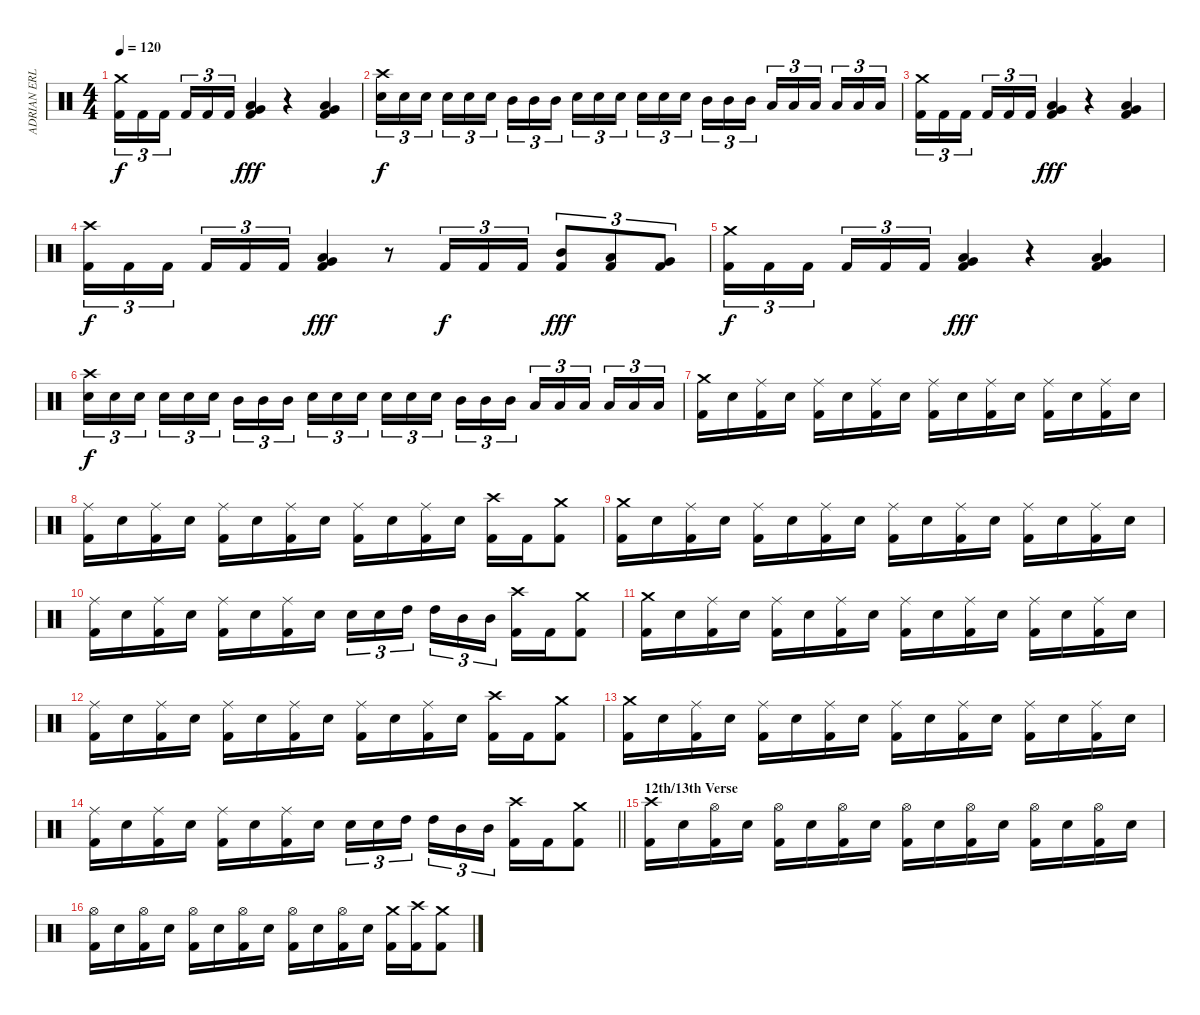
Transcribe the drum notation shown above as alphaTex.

\track ("ADRIAN ERLANDSSON" "ADRIAN ERL") {instrument percussion}
\staff {score}
\articulation defaults
\ts (4 4)
\tempo 120
\clef neutral
\ks c
("Kick (hit) 2" "Crash medium (hit)").16{tu (3 2) dy f} "Kick (hit) 2".16{tu (3 2)} "Kick (hit) 2".16{tu (3 2) beam splitsecondary} "Kick (hit) 2".16{tu (3 2)} "Kick (hit) 2".16{tu (3 2)} "Kick (hit) 2".16{tu (3 2)} ("Kick (hit) 2" "Low Tom (hit)" "Very Low Tom (hit)").4{dy fff} r.4 ("Kick (hit) 2" "Low Tom (hit)" "Very Low Tom (hit)").4 |
("Snare (hit) 2" "Crash high (hit)").16{tu (3 2) dy f} "Snare (hit) 2".16{tu (3 2)} "Snare (hit) 2".16{tu (3 2) beam splitsecondary} "Snare (hit) 2".16{tu (3 2)} "Snare (hit) 2".16{tu (3 2)} "Snare (hit) 2".16{tu (3 2)} "Mid Tom (hit)".16{tu (3 2)} "Mid Tom (hit)".16{tu (3 2)} "Mid Tom (hit)".16{tu (3 2) beam splitsecondary} "Snare (hit) 2".16{tu (3 2)} "Snare (hit) 2".16{tu (3 2)} "Snare (hit) 2".16{tu (3 2)} "Snare (hit) 2".16{tu (3 2)} "Snare (hit) 2".16{tu (3 2)} "Snare (hit) 2".16{tu (3 2) beam splitsecondary} "Mid Tom (hit)".16{tu (3 2)} "Mid Tom (hit)".16{tu (3 2)} "Mid Tom (hit)".16{tu (3 2)} "Low Tom (hit)".16{tu (3 2)} "Low Tom (hit)".16{tu (3 2)} "Low Tom (hit)".16{tu (3 2) beam splitsecondary} "Low Tom (hit)".16{tu (3 2)} "Low Tom (hit)".16{tu (3 2)} "Low Tom (hit)".16{tu (3 2)} |
("Kick (hit) 2" "Crash medium (hit)").16{tu (3 2)} "Kick (hit) 2".16{tu (3 2)} "Kick (hit) 2".16{tu (3 2) beam splitsecondary} "Kick (hit) 2".16{tu (3 2)} "Kick (hit) 2".16{tu (3 2)} "Kick (hit) 2".16{tu (3 2)} ("Kick (hit) 2" "Low Tom (hit)" "Very Low Tom (hit)").4{dy fff} r.4 ("Kick (hit) 2" "Low Tom (hit)" "Very Low Tom (hit)").4 |
("Kick (hit) 2" "Crash high (hit)").16{tu (3 2) dy f} "Kick (hit) 2".16{tu (3 2)} "Kick (hit) 2".16{tu (3 2) beam splitsecondary} "Kick (hit) 2".16{tu (3 2)} "Kick (hit) 2".16{tu (3 2)} "Kick (hit) 2".16{tu (3 2)} ("Kick (hit) 2" "Low Tom (hit)" "Very Low Tom (hit)").4{dy fff} r.8 "Kick (hit) 2".16{tu (3 2) dy f} "Kick (hit) 2".16{tu (3 2)} "Kick (hit) 2".16{tu (3 2)} ("Kick (hit) 2" "Mid Tom (hit)").8{tu (3 2) dy fff} ("Kick (hit) 2" "Low Tom (hit)").8{tu (3 2)} ("Kick (hit) 2" "Very Low Tom (hit)").8{tu (3 2)} |
("Kick (hit) 2" "Crash medium (hit)").16{tu (3 2) dy f} "Kick (hit) 2".16{tu (3 2)} "Kick (hit) 2".16{tu (3 2) beam splitsecondary} "Kick (hit) 2".16{tu (3 2)} "Kick (hit) 2".16{tu (3 2)} "Kick (hit) 2".16{tu (3 2)} ("Kick (hit) 2" "Low Tom (hit)" "Very Low Tom (hit)").4{dy fff} r.4 ("Kick (hit) 2" "Low Tom (hit)" "Very Low Tom (hit)").4 |
("Snare (hit) 2" "Crash high (hit)").16{tu (3 2) dy f} "Snare (hit) 2".16{tu (3 2)} "Snare (hit) 2".16{tu (3 2) beam splitsecondary} "Snare (hit) 2".16{tu (3 2)} "Snare (hit) 2".16{tu (3 2)} "Snare (hit) 2".16{tu (3 2)} "Mid Tom (hit)".16{tu (3 2)} "Mid Tom (hit)".16{tu (3 2)} "Mid Tom (hit)".16{tu (3 2) beam splitsecondary} "Snare (hit) 2".16{tu (3 2)} "Snare (hit) 2".16{tu (3 2)} "Snare (hit) 2".16{tu (3 2)} "Snare (hit) 2".16{tu (3 2)} "Snare (hit) 2".16{tu (3 2)} "Snare (hit) 2".16{tu (3 2) beam splitsecondary} "Mid Tom (hit)".16{tu (3 2)} "Mid Tom (hit)".16{tu (3 2)} "Mid Tom (hit)".16{tu (3 2)} "Low Tom (hit)".16{tu (3 2)} "Low Tom (hit)".16{tu (3 2)} "Low Tom (hit)".16{tu (3 2) beam splitsecondary} "Low Tom (hit)".16{tu (3 2)} "Low Tom (hit)".16{tu (3 2)} "Low Tom (hit)".16{tu (3 2)} |
("Kick (hit) 2" "Crash medium (hit)").16 "Electric Snare (hit)".16 ("Kick (hit) 2" "Ride (middle)").16 "Electric Snare (hit)".16 ("Kick (hit) 2" "Ride (middle)").16 "Electric Snare (hit)".16 ("Kick (hit) 2" "Ride (middle)").16 "Electric Snare (hit)".16 ("Kick (hit) 2" "Ride (middle)").16 "Electric Snare (hit)".16 ("Kick (hit) 2" "Ride (middle)").16 "Electric Snare (hit)".16 ("Kick (hit) 2" "Ride (middle)").16 "Electric Snare (hit)".16 ("Kick (hit) 2" "Ride (middle)").16 "Electric Snare (hit)".16 |
("Kick (hit) 2" "Ride (middle)").16 "Electric Snare (hit)".16 ("Kick (hit) 2" "Ride (middle)").16 "Electric Snare (hit)".16 ("Kick (hit) 2" "Ride (middle)").16 "Electric Snare (hit)".16 ("Kick (hit) 2" "Ride (middle)").16 "Electric Snare (hit)".16 ("Kick (hit) 2" "Ride (middle)").16 "Electric Snare (hit)".16 ("Kick (hit) 2" "Ride (middle)").16 "Electric Snare (hit)".16 ("Kick (hit) 2" "Crash high (hit)").16 "Kick (hit) 2".16 ("Kick (hit) 2" "Crash medium (hit)").8 |
("Kick (hit) 2" "Crash medium (hit)").16 "Electric Snare (hit)".16 ("Kick (hit) 2" "Ride (middle)").16 "Electric Snare (hit)".16 ("Kick (hit) 2" "Ride (middle)").16 "Electric Snare (hit)".16 ("Kick (hit) 2" "Ride (middle)").16 "Electric Snare (hit)".16 ("Kick (hit) 2" "Ride (middle)").16 "Electric Snare (hit)".16 ("Kick (hit) 2" "Ride (middle)").16 "Electric Snare (hit)".16 ("Kick (hit) 2" "Ride (middle)").16 "Electric Snare (hit)".16 ("Kick (hit) 2" "Ride (middle)").16 "Electric Snare (hit)".16 |
("Kick (hit) 2" "Ride (middle)").16 "Electric Snare (hit)".16 ("Kick (hit) 2" "Ride (middle)").16 "Electric Snare (hit)".16 ("Kick (hit) 2" "Ride (middle)").16 "Electric Snare (hit)".16 ("Kick (hit) 2" "Ride (middle)").16 "Electric Snare (hit)".16 "Electric Snare (hit)".16{tu (3 2)} "Electric Snare (hit)".16{tu (3 2)} "High Tom (hit)".16{tu (3 2) beam splitsecondary} "High Tom (hit)".16{tu (3 2)} "Mid Tom (hit)".16{tu (3 2)} "Mid Tom (hit)".16{tu (3 2)} ("Kick (hit) 2" "Crash high (hit)").16 "Kick (hit) 2".16 ("Kick (hit) 2" "Crash medium (hit)").8 |
("Kick (hit) 2" "Crash medium (hit)").16 "Electric Snare (hit)".16 ("Kick (hit) 2" "Ride (middle)").16 "Electric Snare (hit)".16 ("Kick (hit) 2" "Ride (middle)").16 "Electric Snare (hit)".16 ("Kick (hit) 2" "Ride (middle)").16 "Electric Snare (hit)".16 ("Kick (hit) 2" "Ride (middle)").16 "Electric Snare (hit)".16 ("Kick (hit) 2" "Ride (middle)").16 "Electric Snare (hit)".16 ("Kick (hit) 2" "Ride (middle)").16 "Electric Snare (hit)".16 ("Kick (hit) 2" "Ride (middle)").16 "Electric Snare (hit)".16 |
("Kick (hit) 2" "Ride (middle)").16 "Electric Snare (hit)".16 ("Kick (hit) 2" "Ride (middle)").16 "Electric Snare (hit)".16 ("Kick (hit) 2" "Ride (middle)").16 "Electric Snare (hit)".16 ("Kick (hit) 2" "Ride (middle)").16 "Electric Snare (hit)".16 ("Kick (hit) 2" "Ride (middle)").16 "Electric Snare (hit)".16 ("Kick (hit) 2" "Ride (middle)").16 "Electric Snare (hit)".16 ("Kick (hit) 2" "Crash high (hit)").16 "Kick (hit) 2".16 ("Kick (hit) 2" "Crash medium (hit)").8 |
("Kick (hit) 2" "Crash medium (hit)").16 "Electric Snare (hit)".16 ("Kick (hit) 2" "Ride (middle)").16 "Electric Snare (hit)".16 ("Kick (hit) 2" "Ride (middle)").16 "Electric Snare (hit)".16 ("Kick (hit) 2" "Ride (middle)").16 "Electric Snare (hit)".16 ("Kick (hit) 2" "Ride (middle)").16 "Electric Snare (hit)".16 ("Kick (hit) 2" "Ride (middle)").16 "Electric Snare (hit)".16 ("Kick (hit) 2" "Ride (middle)").16 "Electric Snare (hit)".16 ("Kick (hit) 2" "Ride (middle)").16 "Electric Snare (hit)".16 |
\barLineRight lightlight
("Kick (hit) 2" "Ride (middle)").16 "Electric Snare (hit)".16 ("Kick (hit) 2" "Ride (middle)").16 "Electric Snare (hit)".16 ("Kick (hit) 2" "Ride (middle)").16 "Electric Snare (hit)".16 ("Kick (hit) 2" "Ride (middle)").16 "Electric Snare (hit)".16 "Electric Snare (hit)".16{tu (3 2)} "Electric Snare (hit)".16{tu (3 2)} "High Tom (hit)".16{tu (3 2) beam splitsecondary} "High Tom (hit)".16{tu (3 2)} "Mid Tom (hit)".16{tu (3 2)} "Mid Tom (hit)".16{tu (3 2)} ("Kick (hit) 2" "Crash high (hit)").16 "Kick (hit) 2".16 ("Kick (hit) 2" "Crash medium (hit)").8 |
\section ("" "12th/13th Verse")
("Kick (hit) 2" "Crash high (hit)").16 "Electric Snare (hit)".16 ("Kick (hit) 2" "Hi-Hat (open)").16 "Electric Snare (hit)".16 ("Kick (hit) 2" "Hi-Hat (open)").16 "Electric Snare (hit)".16 ("Kick (hit) 2" "Hi-Hat (open)").16 "Electric Snare (hit)".16 ("Kick (hit) 2" "Hi-Hat (open)").16 "Electric Snare (hit)".16 ("Kick (hit) 2" "Hi-Hat (open)").16 "Electric Snare (hit)".16 ("Kick (hit) 2" "Hi-Hat (open)").16 "Electric Snare (hit)".16 ("Kick (hit) 2" "Hi-Hat (open)").16 "Electric Snare (hit)".16 |
("Kick (hit) 2" "Hi-Hat (open)").16 "Electric Snare (hit)".16 ("Kick (hit) 2" "Hi-Hat (open)").16 "Electric Snare (hit)".16 ("Kick (hit) 2" "Hi-Hat (open)").16 "Electric Snare (hit)".16 ("Kick (hit) 2" "Hi-Hat (open)").16 "Electric Snare (hit)".16 ("Kick (hit) 2" "Hi-Hat (open)").16 "Electric Snare (hit)".16 ("Kick (hit) 2" "Hi-Hat (open)").16 "Electric Snare (hit)".16 ("Kick (hit) 2" "Crash medium (hit)").16 ("Kick (hit) 2" "Crash high (hit)").16 ("Kick (hit) 2" "Crash medium (hit)").8
